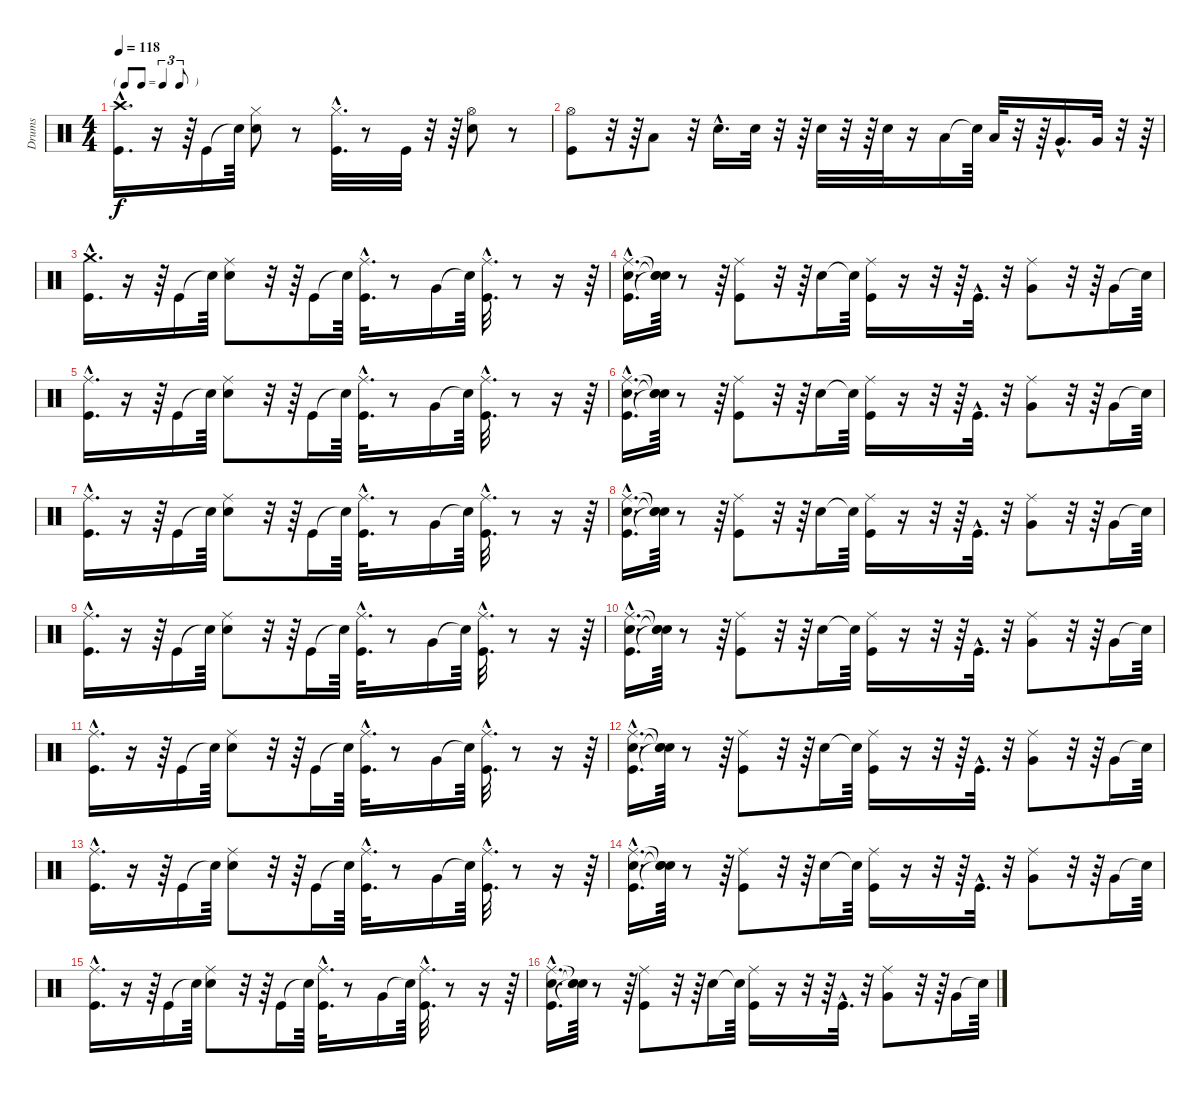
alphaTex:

\track ("Drums" "Drums") {instrument percussion}
\staff {score}
\articulation defaults
\ts (4 4)
\tf triplet8th
\tempo 118
\clef neutral
\ks c
("Crash high (hit)"{hac} "Kick (hit)"{hac}).16{d dy f} r.16 r.64 "Kick (hit)".16 "Snare (hit)"{t}.64 ("Hi-Hat (closed)" "Snare (hit) 2").8 r.8 ("Hi-Hat (closed)"{hac} "Kick (hit)"{hac}).32{d} r.8 "Kick (hit)".32 r.32 r.64 ("Hi-Hat (open)" "Snare (hit) 2").8 r.8 |
("Kick (hit)" "Hi-Hat (open)").8 r.32 r.64 "Low Tom (hit)".8 r.32 "Snare (hit) 2"{hac}.16{d} "Snare (hit) 2".32 r.32 r.64 "Snare (hit) 2".32 r.32 r.64 "Snare (hit) 2".32 r.16 "Low Tom (hit)".16 "Snare (hit)"{t}.64 "Low Tom (hit)".32 r.32 r.64 "Very Low Tom (hit)"{hac}.16{d} "Very Low Tom (hit)".32 r.32 r.64 |
("Crash medium (hit)"{hac} "Kick (hit)"{hac}).16{d} r.16 r.64 "Kick (hit)".16 "Snare (hit)"{t}.64 ("Snare (hit) 2" "Ride (middle)").8 r.32 r.64 "Kick (hit)".16 "Snare (hit)"{t}.64 ("Ride (middle)"{hac} "Kick (hit)"{hac}).32{d} r.8 "Very Low Tom (hit)".16 "Snare (hit)"{t}.64 ("Ride (middle)"{hac} "Kick (hit)"{hac}).32{d} r.8 r.16 r.64 |
("Kick (hit)"{hac} "Ride (middle)"{hac} "Snare (hit) 2"{hac}).16{d} ("Snare (hit)"{t} "Snare (hit)"{t} "Snare (hit)"{t}).64 r.8 r.64 ("Kick (hit)" "Ride (middle)").8 r.32 r.64 "Snare (hit) 2".16 "Snare (hit)"{t}.64 ("Kick (hit)" "Ride (middle)").16 r.16 r.32 r.64 "Kick (hit)"{hac}.32{d} r.32 ("Ride (middle)" "Very Low Tom (hit)").8 r.32 r.64 "Very Low Tom (hit)".16 "Snare (hit)"{t}.64 |
("Kick (hit)"{hac} "Ride (middle)"{hac}).16{d} r.16 r.64 "Kick (hit)".16 "Snare (hit)"{t}.64 ("Snare (hit) 2" "Ride (middle)").8 r.32 r.64 "Kick (hit)".16 "Snare (hit)"{t}.64 ("Ride (middle)"{hac} "Kick (hit)"{hac}).32{d} r.8 "Very Low Tom (hit)".16 "Snare (hit)"{t}.64 ("Kick (hit)"{hac} "Ride (middle)"{hac}).32{d} r.8 r.16 r.64 |
("Ride (middle)"{hac} "Kick (hit)"{hac} "Snare (hit) 2"{hac}).16{d} ("Snare (hit)"{t} "Snare (hit)"{t} "Snare (hit)"{t}).64 r.8 r.64 ("Ride (middle)" "Kick (hit)").8 r.32 r.64 "Snare (hit) 2".16 "Snare (hit)"{t}.64 ("Kick (hit)" "Ride (middle)").16 r.16 r.32 r.64 "Kick (hit)"{hac}.32{d} r.32 ("Ride (middle)" "Very Low Tom (hit)").8 r.32 r.64 "Very Low Tom (hit)".16 "Snare (hit)"{t}.64 |
("Kick (hit)"{hac} "Ride (middle)"{hac}).16{d} r.16 r.64 "Kick (hit)".16 "Snare (hit)"{t}.64 ("Snare (hit) 2" "Ride (middle)").8 r.32 r.64 "Kick (hit)".16 "Snare (hit)"{t}.64 ("Ride (middle)"{hac} "Kick (hit)"{hac}).32{d} r.8 "Very Low Tom (hit)".16 "Snare (hit)"{t}.64 ("Kick (hit)"{hac} "Ride (middle)"{hac}).32{d} r.8 r.16 r.64 |
("Snare (hit) 2"{hac} "Ride (middle)"{hac} "Kick (hit)"{hac}).16{d} ("Snare (hit)"{t} "Snare (hit)"{t} "Snare (hit)"{t}).64 r.8 r.64 ("Kick (hit)" "Ride (middle)").8 r.32 r.64 "Snare (hit) 2".16 "Snare (hit)"{t}.64 ("Kick (hit)" "Ride (middle)").16 r.16 r.32 r.64 "Kick (hit)"{hac}.32{d} r.32 ("Ride (middle)" "Very Low Tom (hit)").8 r.32 r.64 "Very Low Tom (hit)".16 "Snare (hit)"{t}.64 |
("Kick (hit)"{hac} "Ride (middle)"{hac}).16{d} r.16 r.64 "Kick (hit)".16 "Snare (hit)"{t}.64 ("Ride (middle)" "Snare (hit) 2").8 r.32 r.64 "Kick (hit)".16 "Snare (hit)"{t}.64 ("Ride (middle)"{hac} "Kick (hit)"{hac}).32{d} r.8 "Very Low Tom (hit)".16 "Snare (hit)"{t}.64 ("Ride (middle)"{hac} "Kick (hit)"{hac}).32{d} r.8 r.16 r.64 |
("Kick (hit)"{hac} "Ride (middle)"{hac} "Snare (hit) 2"{hac}).16{d} ("Snare (hit)"{t} "Snare (hit)"{t} "Snare (hit)"{t}).64 r.8 r.64 ("Ride (middle)" "Kick (hit)").8 r.32 r.64 "Snare (hit) 2".16 "Snare (hit)"{t}.64 ("Ride (middle)" "Kick (hit)").16 r.16 r.32 r.64 "Kick (hit)"{hac}.32{d} r.32 ("Ride (middle)" "Very Low Tom (hit)").8 r.32 r.64 "Very Low Tom (hit)".16 "Snare (hit)"{t}.64 |
("Ride (middle)"{hac} "Kick (hit)"{hac}).16{d} r.16 r.64 "Kick (hit)".16 "Snare (hit)"{t}.64 ("Snare (hit) 2" "Ride (middle)").8 r.32 r.64 "Kick (hit)".16 "Snare (hit)"{t}.64 ("Ride (middle)"{hac} "Kick (hit)"{hac}).32{d} r.8 "Very Low Tom (hit)".16 "Snare (hit)"{t}.64 ("Kick (hit)"{hac} "Ride (middle)"{hac}).32{d} r.8 r.16 r.64 |
("Ride (middle)"{hac} "Snare (hit) 2"{hac} "Kick (hit)"{hac}).16{d} ("Snare (hit)"{t} "Snare (hit)"{t} "Snare (hit)"{t}).64 r.8 r.64 ("Ride (middle)" "Kick (hit)").8 r.32 r.64 "Snare (hit) 2".16 "Snare (hit)"{t}.64 ("Kick (hit)" "Ride (middle)").16 r.16 r.32 r.64 "Kick (hit)"{hac}.32{d} r.32 ("Ride (middle)" "Very Low Tom (hit)").8 r.32 r.64 "Very Low Tom (hit)".16 "Snare (hit)"{t}.64 |
("Kick (hit)"{hac} "Ride (middle)"{hac}).16{d} r.16 r.64 "Kick (hit)".16 "Snare (hit)"{t}.64 ("Snare (hit) 2" "Ride (middle)").8 r.32 r.64 "Kick (hit)".16 "Snare (hit)"{t}.64 ("Kick (hit)"{hac} "Ride (middle)"{hac}).32{d} r.8 "Very Low Tom (hit)".16 "Snare (hit)"{t}.64 ("Kick (hit)"{hac} "Ride (middle)"{hac}).32{d} r.8 r.16 r.64 |
("Ride (middle)"{hac} "Kick (hit)"{hac} "Snare (hit) 2"{hac}).16{d} ("Snare (hit)"{t} "Snare (hit)"{t} "Snare (hit)"{t}).64 r.8 r.64 ("Kick (hit)" "Ride (middle)").8 r.32 r.64 "Snare (hit) 2".16 "Snare (hit)"{t}.64 ("Kick (hit)" "Ride (middle)").16 r.16 r.32 r.64 "Kick (hit)"{hac}.32{d} r.32 ("Ride (middle)" "Very Low Tom (hit)").8 r.32 r.64 "Very Low Tom (hit)".16 "Snare (hit)"{t}.64 |
("Ride (middle)"{hac} "Kick (hit)"{hac}).16{d} r.16 r.64 "Kick (hit)".16 "Snare (hit)"{t}.64 ("Ride (middle)" "Snare (hit) 2").8 r.32 r.64 "Kick (hit)".16 "Snare (hit)"{t}.64 ("Kick (hit)"{hac} "Ride (middle)"{hac}).32{d} r.8 "Very Low Tom (hit)".16 "Snare (hit)"{t}.64 ("Ride (middle)"{hac} "Kick (hit)"{hac}).32{d} r.8 r.16 r.64 |
("Kick (hit)"{hac} "Snare (hit) 2"{hac} "Ride (middle)"{hac}).16{d} ("Snare (hit)"{t} "Snare (hit)"{t} "Snare (hit)"{t}).64 r.8 r.64 ("Ride (middle)" "Kick (hit)").8 r.32 r.64 "Snare (hit) 2".16 "Snare (hit)"{t}.64 ("Ride (middle)" "Kick (hit)").16 r.16 r.32 r.64 "Kick (hit)"{hac}.32{d} r.32 ("Ride (middle)" "Very Low Tom (hit)").8 r.32 r.64 "Very Low Tom (hit)".16 "Snare (hit)"{t}.64
